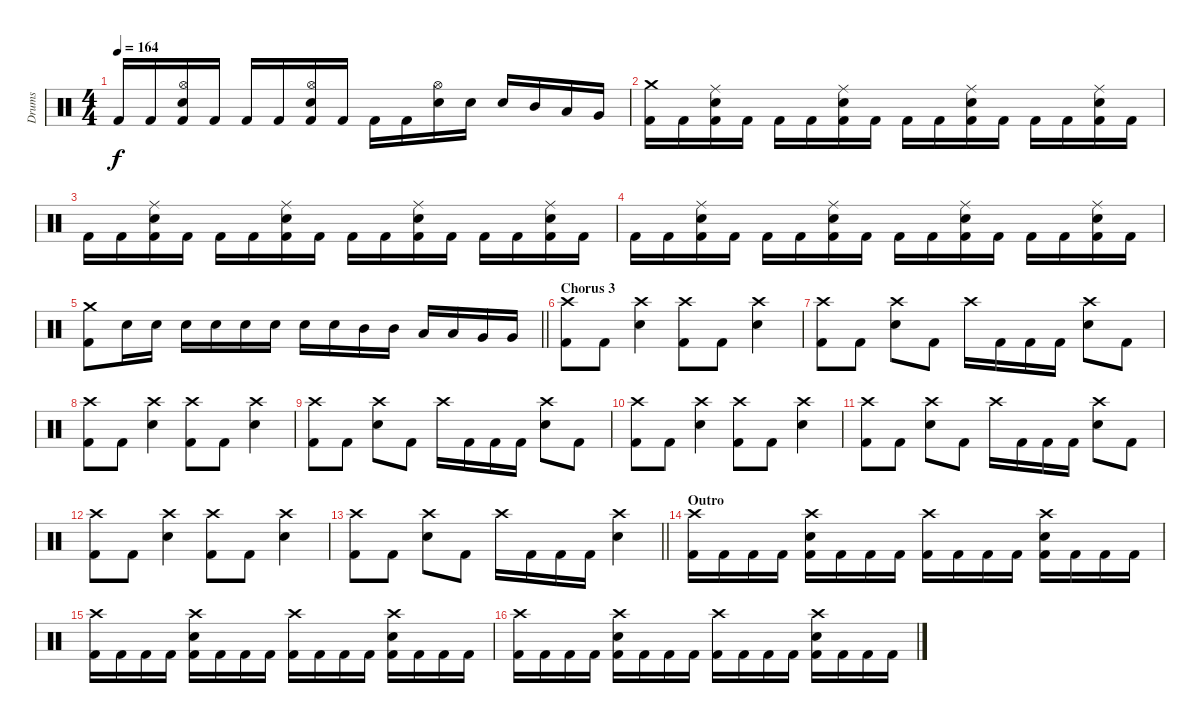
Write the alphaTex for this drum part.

\track ("Drums" "Drums") {instrument percussion}
\staff {score}
\articulation defaults
\ts (4 4)
\tempo 164
\clef neutral
\ks c "Kick (hit) 2".16{dy f} "Kick (hit) 2".16
("Hi-Hat (open)" "Electric Snare (hit)" "Kick (hit) 2").16 "Kick (hit) 2".16 "Kick (hit) 2".16 "Kick (hit) 2".16 ("Hi-Hat (open)" "Electric Snare (hit)" "Kick (hit) 2").16 "Kick (hit) 2".16 "Kick (hit) 2".16 "Kick (hit) 2".16 ("Hi-Hat (open)" "Electric Snare (hit)").16 "Electric Snare (hit)".16 "Electric Snare (hit)".16 "Mid Tom (hit)".16 "Low Tom (hit)".16 "Very Low Tom (hit)".16 |
("Crash medium (hit)" "Kick (hit) 2").16 "Kick (hit) 2".16 ("Ride (middle)" "Electric Snare (hit)" "Kick (hit) 2").16 "Kick (hit) 2".16 "Kick (hit) 2".16 "Kick (hit) 2".16 ("Ride (middle)" "Electric Snare (hit)" "Kick (hit) 2").16 "Kick (hit) 2".16 "Kick (hit) 2".16 "Kick (hit) 2".16 ("Ride (middle)" "Electric Snare (hit)" "Kick (hit) 2").16 "Kick (hit) 2".16 "Kick (hit) 2".16 "Kick (hit) 2".16 ("Ride (middle)" "Electric Snare (hit)" "Kick (hit) 2").16 "Kick (hit) 2".16 |
"Kick (hit) 2".16 "Kick (hit) 2".16 ("Ride (middle)" "Electric Snare (hit)" "Kick (hit) 2").16 "Kick (hit) 2".16 "Kick (hit) 2".16 "Kick (hit) 2".16 ("Ride (middle)" "Electric Snare (hit)" "Kick (hit) 2").16 "Kick (hit) 2".16 "Kick (hit) 2".16 "Kick (hit) 2".16 ("Ride (middle)" "Electric Snare (hit)" "Kick (hit) 2").16 "Kick (hit) 2".16 "Kick (hit) 2".16 "Kick (hit) 2".16 ("Ride (middle)" "Electric Snare (hit)" "Kick (hit) 2").16 "Kick (hit) 2".16 |
"Kick (hit) 2".16 "Kick (hit) 2".16 ("Ride (middle)" "Electric Snare (hit)" "Kick (hit) 2").16 "Kick (hit) 2".16 "Kick (hit) 2".16 "Kick (hit) 2".16 ("Ride (middle)" "Electric Snare (hit)" "Kick (hit) 2").16 "Kick (hit) 2".16 "Kick (hit) 2".16 "Kick (hit) 2".16 ("Ride (middle)" "Electric Snare (hit)" "Kick (hit) 2").16 "Kick (hit) 2".16 "Kick (hit) 2".16 "Kick (hit) 2".16 ("Ride (middle)" "Electric Snare (hit)" "Kick (hit) 2").16 "Kick (hit) 2".16 |
\barLineRight lightlight
("Crash medium (hit)" "Kick (hit) 2").8 "Electric Snare (hit)".16 "Electric Snare (hit)".16 "Electric Snare (hit)".16 "Electric Snare (hit)".16 "Electric Snare (hit)".16 "Electric Snare (hit)".16 "Electric Snare (hit)".16 "Electric Snare (hit)".16 "Mid Tom (hit)".16 "Mid Tom (hit)".16 "Low Tom (hit)".16 "Low Tom (hit)".16 "Very Low Tom (hit)".16 "Very Low Tom (hit)".16 |
\section ("" "Chorus 3")
("Crash high (hit)" "Kick (hit) 2").8 "Kick (hit) 2".8 ("Crash high (hit)" "Electric Snare (hit)").4 ("Crash high (hit)" "Kick (hit) 2").8 "Kick (hit) 2".8 ("Crash high (hit)" "Electric Snare (hit)").4 |
("Crash high (hit)" "Kick (hit) 2").8 "Kick (hit) 2".8 ("Crash high (hit)" "Electric Snare (hit)").8 "Kick (hit) 2".8 "Crash high (hit)".16 "Kick (hit) 2".16 "Kick (hit) 2".16 "Kick (hit) 2".16 ("Crash high (hit)" "Electric Snare (hit)").8 "Kick (hit) 2".8 |
("Crash high (hit)" "Kick (hit) 2").8 "Kick (hit) 2".8 ("Crash high (hit)" "Electric Snare (hit)").4 ("Crash high (hit)" "Kick (hit) 2").8 "Kick (hit) 2".8 ("Crash high (hit)" "Electric Snare (hit)").4 |
("Crash high (hit)" "Kick (hit) 2").8 "Kick (hit) 2".8 ("Crash high (hit)" "Electric Snare (hit)").8 "Kick (hit) 2".8 "Crash high (hit)".16 "Kick (hit) 2".16 "Kick (hit) 2".16 "Kick (hit) 2".16 ("Crash high (hit)" "Electric Snare (hit)").8 "Kick (hit) 2".8 |
("Crash high (hit)" "Kick (hit) 2").8 "Kick (hit) 2".8 ("Crash high (hit)" "Electric Snare (hit)").4 ("Crash high (hit)" "Kick (hit) 2").8 "Kick (hit) 2".8 ("Crash high (hit)" "Electric Snare (hit)").4 |
("Crash high (hit)" "Kick (hit) 2").8 "Kick (hit) 2".8 ("Crash high (hit)" "Electric Snare (hit)").8 "Kick (hit) 2".8 "Crash high (hit)".16 "Kick (hit) 2".16 "Kick (hit) 2".16 "Kick (hit) 2".16 ("Crash high (hit)" "Electric Snare (hit)").8 "Kick (hit) 2".8 |
("Crash high (hit)" "Kick (hit) 2").8 "Kick (hit) 2".8 ("Crash high (hit)" "Electric Snare (hit)").4 ("Crash high (hit)" "Kick (hit) 2").8 "Kick (hit) 2".8 ("Crash high (hit)" "Electric Snare (hit)").4 |
\barLineRight lightlight
("Crash high (hit)" "Kick (hit) 2").8 "Kick (hit) 2".8 ("Crash high (hit)" "Electric Snare (hit)").8 "Kick (hit) 2".8 "Crash high (hit)".16 "Kick (hit) 2".16 "Kick (hit) 2".16 "Kick (hit) 2".16 ("Crash high (hit)" "Electric Snare (hit)").4 |
\section ("" "Outro")
("Crash high (hit)" "Kick (hit) 2").16 "Kick (hit) 2".16 "Kick (hit) 2".16 "Kick (hit) 2".16 ("Crash high (hit)" "Electric Snare (hit)" "Kick (hit) 2").16 "Kick (hit) 2".16 "Kick (hit) 2".16 "Kick (hit) 2".16 ("Crash high (hit)" "Kick (hit) 2").16 "Kick (hit) 2".16 "Kick (hit) 2".16 "Kick (hit) 2".16 ("Crash high (hit)" "Electric Snare (hit)" "Kick (hit) 2").16 "Kick (hit) 2".16 "Kick (hit) 2".16 "Kick (hit) 2".16 |
("Crash high (hit)" "Kick (hit) 2").16 "Kick (hit) 2".16 "Kick (hit) 2".16 "Kick (hit) 2".16 ("Crash high (hit)" "Electric Snare (hit)" "Kick (hit) 2").16 "Kick (hit) 2".16 "Kick (hit) 2".16 "Kick (hit) 2".16 ("Crash high (hit)" "Kick (hit) 2").16 "Kick (hit) 2".16 "Kick (hit) 2".16 "Kick (hit) 2".16 ("Crash high (hit)" "Electric Snare (hit)" "Kick (hit) 2").16 "Kick (hit) 2".16 "Kick (hit) 2".16 "Kick (hit) 2".16 |
("Crash high (hit)" "Kick (hit) 2").16 "Kick (hit) 2".16 "Kick (hit) 2".16 "Kick (hit) 2".16 ("Crash high (hit)" "Electric Snare (hit)" "Kick (hit) 2").16 "Kick (hit) 2".16 "Kick (hit) 2".16 "Kick (hit) 2".16 ("Crash high (hit)" "Kick (hit) 2").16 "Kick (hit) 2".16 "Kick (hit) 2".16 "Kick (hit) 2".16 ("Crash high (hit)" "Electric Snare (hit)" "Kick (hit) 2").16 "Kick (hit) 2".16 "Kick (hit) 2".16 "Kick (hit) 2".16
